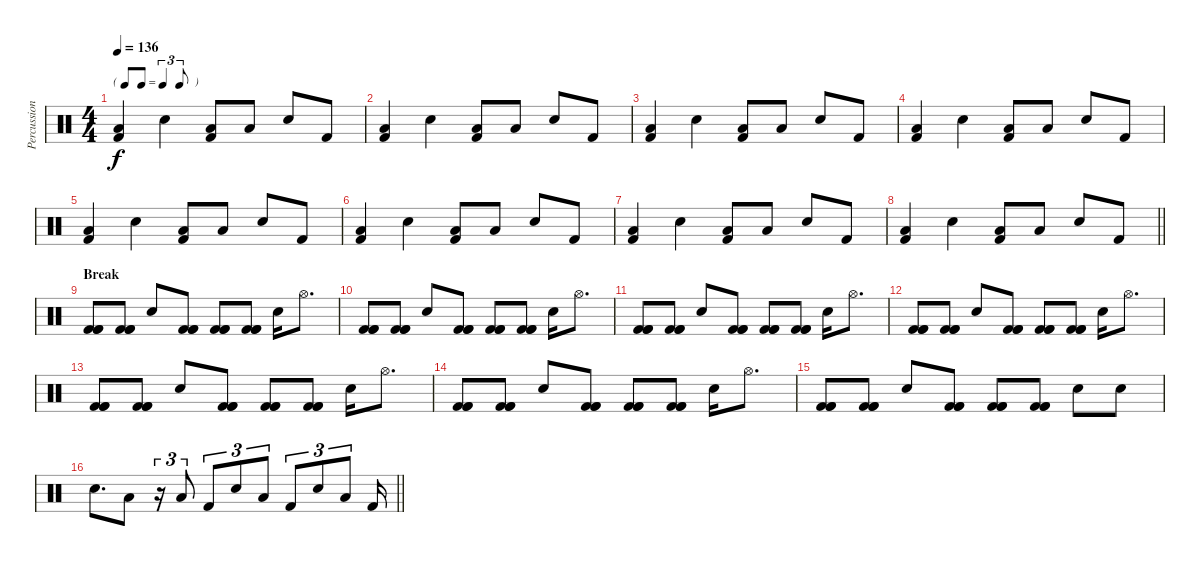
\track ("Percussions" "Percussion") {instrument percussion}
\staff {score}
\articulation defaults
\ts (4 4)
\tf triplet8th
\tempo 136
\clef neutral
\ks c
("Low Floor Tom (hit)" "Kick (hit) 2").4{dy f} "Snare (hit) 2".4 ("Low Floor Tom (hit)" "Kick (hit) 2").8 "Low Floor Tom (hit)".8 "Snare (hit) 2".8 "Kick (hit) 2".8 |
("Low Floor Tom (hit)" "Kick (hit) 2").4 "Snare (hit) 2".4 ("Low Floor Tom (hit)" "Kick (hit) 2").8 "Low Floor Tom (hit)".8 "Snare (hit) 2".8 "Kick (hit) 2".8 |
("Low Floor Tom (hit)" "Kick (hit) 2").4 "Snare (hit) 2".4 ("Low Floor Tom (hit)" "Kick (hit) 2").8 "Low Floor Tom (hit)".8 "Snare (hit) 2".8 "Kick (hit) 2".8 |
("Low Floor Tom (hit)" "Kick (hit) 2").4 "Snare (hit) 2".4 ("Low Floor Tom (hit)" "Kick (hit) 2").8 "Low Floor Tom (hit)".8 "Snare (hit) 2".8 "Kick (hit) 2".8 |
("Low Floor Tom (hit)" "Kick (hit) 2").4 "Snare (hit) 2".4 ("Low Floor Tom (hit)" "Kick (hit) 2").8 "Low Floor Tom (hit)".8 "Snare (hit) 2".8 "Kick (hit) 2".8 |
("Low Floor Tom (hit)" "Kick (hit) 2").4 "Snare (hit) 2".4 ("Low Floor Tom (hit)" "Kick (hit) 2").8 "Low Floor Tom (hit)".8 "Snare (hit) 2".8 "Kick (hit) 2".8 |
("Low Floor Tom (hit)" "Kick (hit) 2").4 "Snare (hit) 2".4 ("Low Floor Tom (hit)" "Kick (hit) 2").8 "Low Floor Tom (hit)".8 "Snare (hit) 2".8 "Kick (hit) 2".8 |
\barLineRight lightlight
("Low Floor Tom (hit)" "Kick (hit) 2").4 "Snare (hit) 2".4 ("Low Floor Tom (hit)" "Kick (hit) 2").8 "Low Floor Tom (hit)".8 "Snare (hit) 2".8 "Kick (hit) 2".8 |
\section ("" "Break")
("Kick (hit) 2" "Kick (hit) 2" "Kick (hit) 2").8 ("Kick (hit) 2" "Kick (hit) 2" "Kick (hit) 2").8 "Snare (hit) 2".8 ("Kick (hit) 2" "Kick (hit) 2" "Kick (hit) 2").8 ("Kick (hit) 2" "Kick (hit) 2" "Kick (hit) 2").8 ("Kick (hit) 2" "Kick (hit) 2" "Kick (hit) 2").8 "Snare (hit) 2".16 "Hi-Hat (open)".8{d} |
("Kick (hit) 2" "Kick (hit) 2" "Kick (hit) 2").8 ("Kick (hit) 2" "Kick (hit) 2" "Kick (hit) 2").8 "Snare (hit) 2".8 ("Kick (hit) 2" "Kick (hit) 2" "Kick (hit) 2").8 ("Kick (hit) 2" "Kick (hit) 2" "Kick (hit) 2").8 ("Kick (hit) 2" "Kick (hit) 2" "Kick (hit) 2").8 "Snare (hit) 2".16 "Hi-Hat (open)".8{d} |
("Kick (hit) 2" "Kick (hit) 2" "Kick (hit) 2").8 ("Kick (hit) 2" "Kick (hit) 2" "Kick (hit) 2").8 "Snare (hit) 2".8 ("Kick (hit) 2" "Kick (hit) 2" "Kick (hit) 2").8 ("Kick (hit) 2" "Kick (hit) 2" "Kick (hit) 2").8 ("Kick (hit) 2" "Kick (hit) 2" "Kick (hit) 2").8 "Snare (hit) 2".16 "Hi-Hat (open)".8{d} |
("Kick (hit) 2" "Kick (hit) 2" "Kick (hit) 2").8 ("Kick (hit) 2" "Kick (hit) 2" "Kick (hit) 2").8 "Snare (hit) 2".8 ("Kick (hit) 2" "Kick (hit) 2" "Kick (hit) 2").8 ("Kick (hit) 2" "Kick (hit) 2" "Kick (hit) 2").8 ("Kick (hit) 2" "Kick (hit) 2" "Kick (hit) 2").8 "Snare (hit) 2".16 "Hi-Hat (open)".8{d} |
("Kick (hit) 2" "Kick (hit) 2" "Kick (hit) 2").8 ("Kick (hit) 2" "Kick (hit) 2" "Kick (hit) 2").8 "Snare (hit) 2".8 ("Kick (hit) 2" "Kick (hit) 2" "Kick (hit) 2").8 ("Kick (hit) 2" "Kick (hit) 2" "Kick (hit) 2").8 ("Kick (hit) 2" "Kick (hit) 2" "Kick (hit) 2").8 "Snare (hit) 2".16 "Hi-Hat (open)".8{d} |
("Kick (hit) 2" "Kick (hit) 2" "Kick (hit) 2").8 ("Kick (hit) 2" "Kick (hit) 2" "Kick (hit) 2").8 "Snare (hit) 2".8 ("Kick (hit) 2" "Kick (hit) 2" "Kick (hit) 2").8 ("Kick (hit) 2" "Kick (hit) 2" "Kick (hit) 2").8 ("Kick (hit) 2" "Kick (hit) 2" "Kick (hit) 2").8 "Snare (hit) 2".16 "Hi-Hat (open)".8{d} |
("Kick (hit) 2" "Kick (hit) 2" "Kick (hit) 2").8 ("Kick (hit) 2" "Kick (hit) 2" "Kick (hit) 2").8 "Snare (hit) 2".8 ("Kick (hit) 2" "Kick (hit) 2" "Kick (hit) 2").8 ("Kick (hit) 2" "Kick (hit) 2" "Kick (hit) 2").8 ("Kick (hit) 2" "Kick (hit) 2" "Kick (hit) 2").8 "Snare (hit) 2".8 "Snare (hit) 2".8 |
\barLineRight lightlight "Snare (hit) 2".8{d} "Low Tom (hit)".8
r.16{tu (3 2)} "Low Tom (hit)".8{tu (3 2)} "Kick (hit) 2".8{tu (3 2)} "Snare (hit) 2".8{tu (3 2)} "Low Tom (hit)".8{tu (3 2)} "Kick (hit) 2".8{tu (3 2)} "Snare (hit) 2".8{tu (3 2)} "Low Tom (hit)".8{tu (3 2)} "Kick (hit) 2".16
